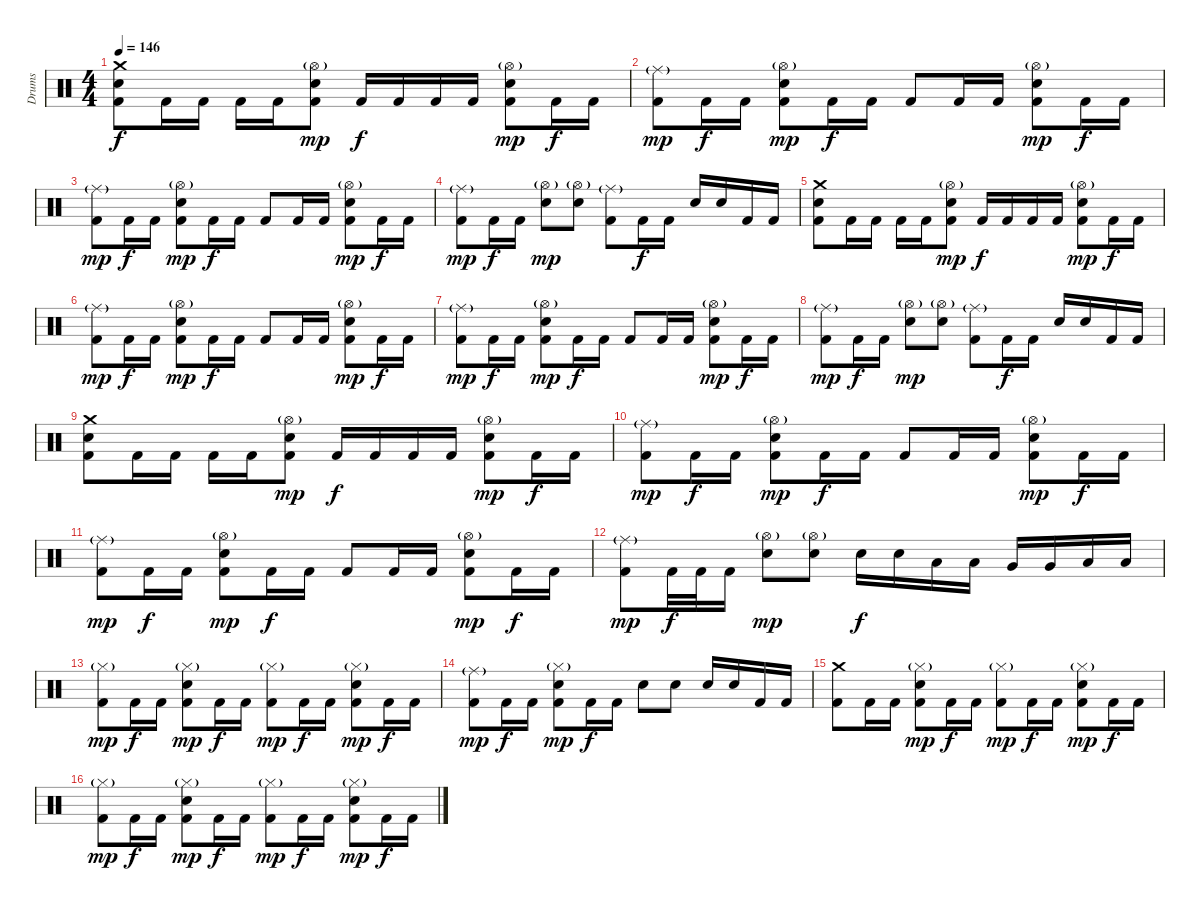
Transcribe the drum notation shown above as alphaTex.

\track ("Drums" "Drums") {instrument percussion}
\staff {score}
\articulation defaults
\ts (4 4)
\tempo 146
\clef neutral
\ks c
("Crash medium (hit)" "Snare (hit) 2" "Kick (hit) 2").8{dy f} "Kick (hit) 2".16 "Kick (hit) 2".16 "Kick (hit) 2".16 "Kick (hit) 2".16 ("Snare (hit) 2" "Hi-Hat (open)"{g} "Kick (hit) 2").8{dy mp} "Kick (hit) 2".16{dy f} "Kick (hit) 2".16 "Kick (hit) 2".16 "Kick (hit) 2".16 ("Snare (hit) 2" "Hi-Hat (open)"{g} "Kick (hit) 2").8{dy mp} "Kick (hit) 2".16{dy f} "Kick (hit) 2".16 |
("Ride (middle)"{g} "Kick (hit) 2").8{dy mp} "Kick (hit) 2".16{dy f} "Kick (hit) 2".16 ("Snare (hit) 2" "Hi-Hat (open)"{g} "Kick (hit) 2").8{dy mp} "Kick (hit) 2".16{dy f} "Kick (hit) 2".16 "Kick (hit) 2".8 "Kick (hit) 2".16 "Kick (hit) 2".16 ("Snare (hit) 2" "Hi-Hat (open)"{g} "Kick (hit) 2").8{dy mp} "Kick (hit) 2".16{dy f} "Kick (hit) 2".16 |
("Ride (middle)"{g} "Kick (hit) 2").8{dy mp} "Kick (hit) 2".16{dy f} "Kick (hit) 2".16 ("Snare (hit) 2" "Hi-Hat (open)"{g} "Kick (hit) 2").8{dy mp} "Kick (hit) 2".16{dy f} "Kick (hit) 2".16 "Kick (hit) 2".8 "Kick (hit) 2".16 "Kick (hit) 2".16 ("Snare (hit) 2" "Hi-Hat (open)"{g} "Kick (hit) 2").8{dy mp} "Kick (hit) 2".16{dy f} "Kick (hit) 2".16 |
("Ride (middle)"{g} "Kick (hit) 2").8{dy mp} "Kick (hit) 2".16{dy f} "Kick (hit) 2".16 ("Snare (hit) 2" "Hi-Hat (open)"{g}).8{dy mp} ("Snare (hit) 2" "Hi-Hat (open)"{g}).8 ("Ride (middle)"{g} "Kick (hit) 2").8 "Kick (hit) 2".16{dy f} "Kick (hit) 2".16 "Snare (hit) 2".16 "Snare (hit) 2".16 "Kick (hit) 2".16 "Kick (hit) 2".16 |
("Crash medium (hit)" "Snare (hit) 2" "Kick (hit) 2").8 "Kick (hit) 2".16 "Kick (hit) 2".16 "Kick (hit) 2".16 "Kick (hit) 2".16 ("Snare (hit) 2" "Hi-Hat (open)"{g} "Kick (hit) 2").8{dy mp} "Kick (hit) 2".16{dy f} "Kick (hit) 2".16 "Kick (hit) 2".16 "Kick (hit) 2".16 ("Snare (hit) 2" "Hi-Hat (open)"{g} "Kick (hit) 2").8{dy mp} "Kick (hit) 2".16{dy f} "Kick (hit) 2".16 |
("Ride (middle)"{g} "Kick (hit) 2").8{dy mp} "Kick (hit) 2".16{dy f} "Kick (hit) 2".16 ("Snare (hit) 2" "Hi-Hat (open)"{g} "Kick (hit) 2").8{dy mp} "Kick (hit) 2".16{dy f} "Kick (hit) 2".16 "Kick (hit) 2".8 "Kick (hit) 2".16 "Kick (hit) 2".16 ("Snare (hit) 2" "Hi-Hat (open)"{g} "Kick (hit) 2").8{dy mp} "Kick (hit) 2".16{dy f} "Kick (hit) 2".16 |
("Ride (middle)"{g} "Kick (hit) 2").8{dy mp} "Kick (hit) 2".16{dy f} "Kick (hit) 2".16 ("Snare (hit) 2" "Hi-Hat (open)"{g} "Kick (hit) 2").8{dy mp} "Kick (hit) 2".16{dy f} "Kick (hit) 2".16 "Kick (hit) 2".8 "Kick (hit) 2".16 "Kick (hit) 2".16 ("Snare (hit) 2" "Hi-Hat (open)"{g} "Kick (hit) 2").8{dy mp} "Kick (hit) 2".16{dy f} "Kick (hit) 2".16 |
("Ride (middle)"{g} "Kick (hit) 2").8{dy mp} "Kick (hit) 2".16{dy f} "Kick (hit) 2".16 ("Snare (hit) 2" "Hi-Hat (open)"{g}).8{dy mp} ("Snare (hit) 2" "Hi-Hat (open)"{g}).8 ("Ride (middle)"{g} "Kick (hit) 2").8 "Kick (hit) 2".16{dy f} "Kick (hit) 2".16 "Snare (hit) 2".16 "Snare (hit) 2".16 "Kick (hit) 2".16 "Kick (hit) 2".16 |
("Crash medium (hit)" "Snare (hit) 2" "Kick (hit) 2").8 "Kick (hit) 2".16 "Kick (hit) 2".16 "Kick (hit) 2".16 "Kick (hit) 2".16 ("Snare (hit) 2" "Hi-Hat (open)"{g} "Kick (hit) 2").8{dy mp} "Kick (hit) 2".16{dy f} "Kick (hit) 2".16 "Kick (hit) 2".16 "Kick (hit) 2".16 ("Snare (hit) 2" "Hi-Hat (open)"{g} "Kick (hit) 2").8{dy mp} "Kick (hit) 2".16{dy f} "Kick (hit) 2".16 |
("Ride (middle)"{g} "Kick (hit) 2").8{dy mp} "Kick (hit) 2".16{dy f} "Kick (hit) 2".16 ("Snare (hit) 2" "Hi-Hat (open)"{g} "Kick (hit) 2").8{dy mp} "Kick (hit) 2".16{dy f} "Kick (hit) 2".16 "Kick (hit) 2".8 "Kick (hit) 2".16 "Kick (hit) 2".16 ("Snare (hit) 2" "Hi-Hat (open)"{g} "Kick (hit) 2").8{dy mp} "Kick (hit) 2".16{dy f} "Kick (hit) 2".16 |
("Ride (middle)"{g} "Kick (hit) 2").8{dy mp} "Kick (hit) 2".16{dy f} "Kick (hit) 2".16 ("Snare (hit) 2" "Hi-Hat (open)"{g} "Kick (hit) 2").8{dy mp} "Kick (hit) 2".16{dy f} "Kick (hit) 2".16 "Kick (hit) 2".8 "Kick (hit) 2".16 "Kick (hit) 2".16 ("Snare (hit) 2" "Hi-Hat (open)"{g} "Kick (hit) 2").8{dy mp} "Kick (hit) 2".16{dy f} "Kick (hit) 2".16 |
("Ride (middle)"{g} "Kick (hit) 2").8{dy mp} "Kick (hit) 2".32{dy f} "Kick (hit) 2".32 "Kick (hit) 2".16 ("Snare (hit) 2" "Hi-Hat (open)"{g}).8{dy mp} ("Snare (hit) 2" "Hi-Hat (open)"{g}).8 "Snare (hit) 2".16{dy f} "Snare (hit) 2".16 "Low Tom (hit)".16 "Low Tom (hit)".16 "Very Low Tom (hit)".16 "Very Low Tom (hit)".16 "Low Floor Tom (hit)".16 "Low Floor Tom (hit)".16 |
("Hi-Hat (closed)"{g} "Kick (hit) 2").8{dy mp} "Kick (hit) 2".16{dy f} "Kick (hit) 2".16 ("Snare (hit) 2" "Hi-Hat (closed)"{g} "Kick (hit) 2").8{dy mp} "Kick (hit) 2".16{dy f} "Kick (hit) 2".16 ("Hi-Hat (closed)"{g} "Kick (hit) 2").8{dy mp} "Kick (hit) 2".16{dy f} "Kick (hit) 2".16 ("Snare (hit) 2" "Hi-Hat (closed)"{g} "Kick (hit) 2").8{dy mp} "Kick (hit) 2".16{dy f} "Kick (hit) 2".16 |
("Ride (middle)"{g} "Kick (hit) 2").8{dy mp} "Kick (hit) 2".16{dy f} "Kick (hit) 2".16 ("Snare (hit) 2" "Hi-Hat (closed)"{g} "Kick (hit) 2").8{dy mp} "Kick (hit) 2".16{dy f} "Kick (hit) 2".16 "Snare (hit) 2".8 "Snare (hit) 2".8 "Snare (hit) 2".16 "Snare (hit) 2".16 "Kick (hit) 2".16 "Kick (hit) 2".16 |
("Crash medium (hit)" "Kick (hit) 2").8 "Kick (hit) 2".16 "Kick (hit) 2".16 ("Snare (hit) 2" "Hi-Hat (closed)"{g} "Kick (hit) 2").8{dy mp} "Kick (hit) 2".16{dy f} "Kick (hit) 2".16 ("Hi-Hat (closed)"{g} "Kick (hit) 2").8{dy mp} "Kick (hit) 2".16{dy f} "Kick (hit) 2".16 ("Snare (hit) 2" "Hi-Hat (closed)"{g} "Kick (hit) 2").8{dy mp} "Kick (hit) 2".16{dy f} "Kick (hit) 2".16 |
("Hi-Hat (closed)"{g} "Kick (hit) 2").8{dy mp} "Kick (hit) 2".16{dy f} "Kick (hit) 2".16 ("Snare (hit) 2" "Hi-Hat (closed)"{g} "Kick (hit) 2").8{dy mp} "Kick (hit) 2".16{dy f} "Kick (hit) 2".16 ("Hi-Hat (closed)"{g} "Kick (hit) 2").8{dy mp} "Kick (hit) 2".16{dy f} "Kick (hit) 2".16 ("Snare (hit) 2" "Hi-Hat (closed)"{g} "Kick (hit) 2").8{dy mp} "Kick (hit) 2".16{dy f} "Kick (hit) 2".16
